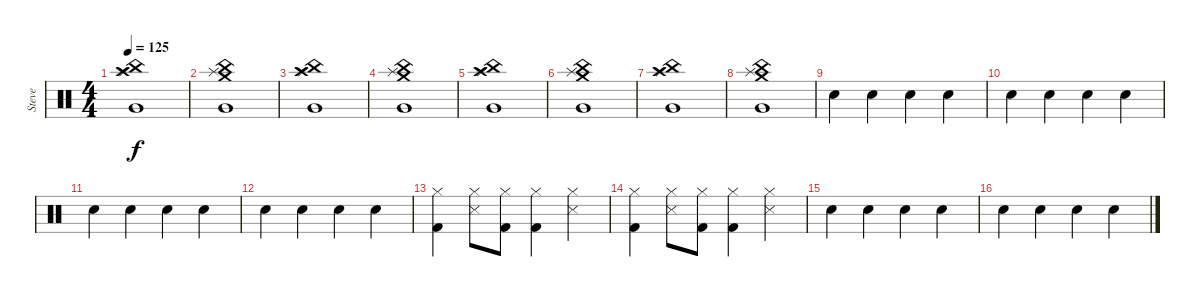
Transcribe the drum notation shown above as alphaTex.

\track ("Steve" "Steve") {instrument percussion}
\staff {score}
\articulation defaults
\ts (4 4)
\tempo 125
\clef neutral
\ks c
("China (hit)" "Very Low Tom (hit)" "Crash high (hit)" "Splash (hit)").1{dy f} |
("China (hit)" "Very Low Tom (hit)" "Crash medium (hit)" "Splash (hit)").1 |
("China (hit)" "Very Low Tom (hit)" "Crash high (hit)" "Splash (hit)").1 |
("China (hit)" "Very Low Tom (hit)" "Crash medium (hit)" "Splash (hit)").1 |
("China (hit)" "Very Low Tom (hit)" "Crash high (hit)" "Splash (hit)").1 |
("China (hit)" "Very Low Tom (hit)" "Crash medium (hit)" "Splash (hit)").1 |
("China (hit)" "Very Low Tom (hit)" "Crash high (hit)" "Splash (hit)").1 |
("China (hit)" "Very Low Tom (hit)" "Crash medium (hit)" "Splash (hit)").1 |
"Snare (hit) 2".4 "Snare (hit) 2".4 "Snare (hit) 2".4 "Snare (hit) 2".4 |
"Snare (hit) 2".4 "Snare (hit) 2".4 "Snare (hit) 2".4 "Snare (hit) 2".4 |
"Snare (hit) 2".4 "Snare (hit) 2".4 "Snare (hit) 2".4 "Snare (hit) 2".4 |
"Snare (hit) 2".4 "Snare (hit) 2".4 "Snare (hit) 2".4 "Snare (hit) 2".4 |
("Hi-Hat (closed)" "Kick (hit) 2").4 ("Hi-Hat (closed)" "Snare (side stick) 3").8 ("Hi-Hat (closed)" "Kick (hit) 2").8 ("Hi-Hat (closed)" "Kick (hit) 2").4 ("Hi-Hat (closed)" "Snare (side stick) 3").4 |
("Hi-Hat (closed)" "Kick (hit) 2").4 ("Hi-Hat (closed)" "Snare (side stick) 3").8 ("Hi-Hat (closed)" "Kick (hit) 2").8 ("Hi-Hat (closed)" "Kick (hit) 2").4 ("Hi-Hat (closed)" "Snare (side stick) 3").4 |
"Snare (hit) 2".4 "Snare (hit) 2".4 "Snare (hit) 2".4 "Snare (hit) 2".4 |
"Snare (hit) 2".4 "Snare (hit) 2".4 "Snare (hit) 2".4 "Snare (hit) 2".4
